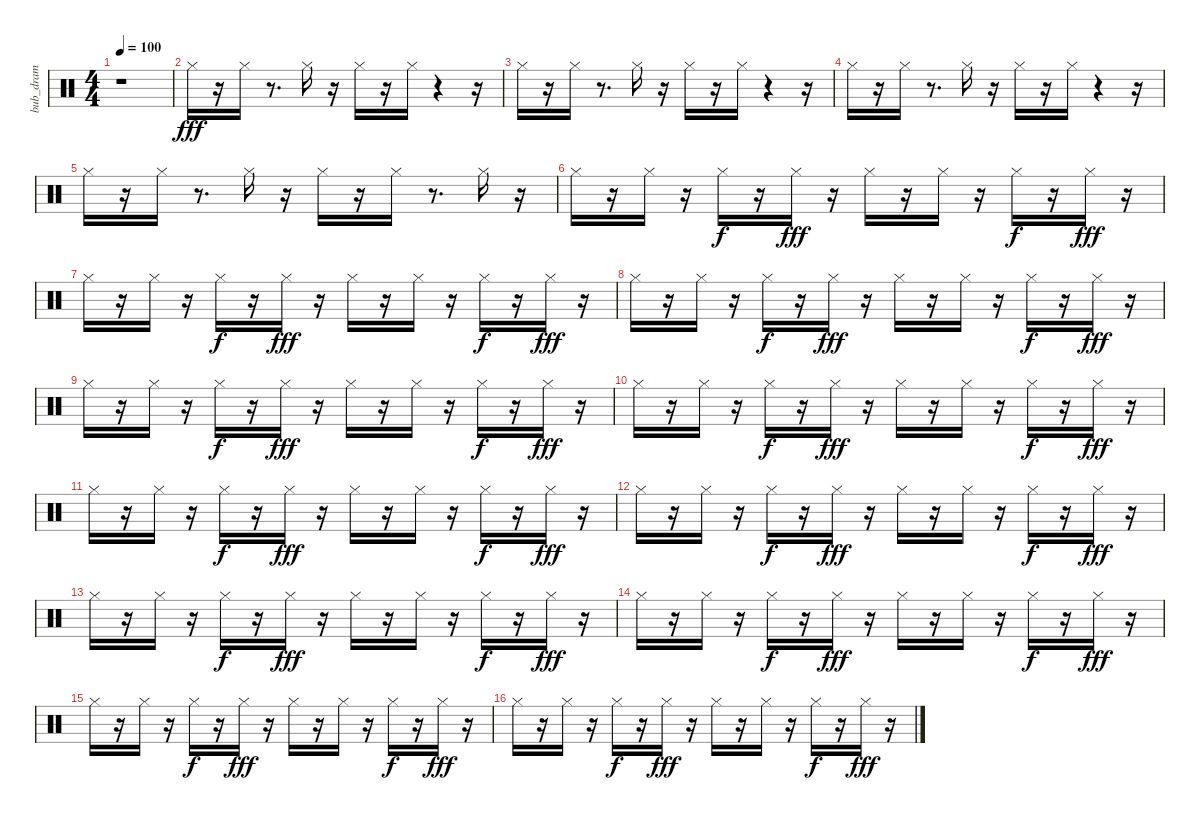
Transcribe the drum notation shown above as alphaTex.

\track ("bub_dram" "bub_dram") {instrument percussion}
\staff {score}
\articulation defaults
\ts (4 4)
\tempo 100
\clef neutral
\ks c
r.1{dy fff} |
"Hi-Hat (closed)".16 r.16 "Hi-Hat (closed)".16 r.8{d} "Hi-Hat (closed)".16 r.16 "Hi-Hat (closed)".16 r.16 "Hi-Hat (closed)".16 r.4 r.16 |
"Hi-Hat (closed)".16 r.16 "Hi-Hat (closed)".16 r.8{d} "Hi-Hat (closed)".16 r.16 "Hi-Hat (closed)".16 r.16 "Hi-Hat (closed)".16 r.4 r.16 |
"Hi-Hat (closed)".16 r.16 "Hi-Hat (closed)".16 r.8{d} "Hi-Hat (closed)".16 r.16 "Hi-Hat (closed)".16 r.16 "Hi-Hat (closed)".16 r.4 r.16 |
"Hi-Hat (closed)".16 r.16 "Hi-Hat (closed)".16 r.8{d} "Hi-Hat (closed)".16 r.16 "Hi-Hat (closed)".16 r.16 "Hi-Hat (closed)".16 r.8{d} "Hi-Hat (closed)".16 r.16 |
"Hi-Hat (closed)".16 r.16 "Hi-Hat (closed)".16 r.16 "Hi-Hat (closed)".16{dy f} r.16 "Hi-Hat (closed)".16{dy fff} r.16 "Hi-Hat (closed)".16 r.16 "Hi-Hat (closed)".16 r.16 "Hi-Hat (closed)".16{dy f} r.16 "Hi-Hat (closed)".16{dy fff} r.16 |
"Hi-Hat (closed)".16 r.16 "Hi-Hat (closed)".16 r.16 "Hi-Hat (closed)".16{dy f} r.16 "Hi-Hat (closed)".16{dy fff} r.16 "Hi-Hat (closed)".16 r.16 "Hi-Hat (closed)".16 r.16 "Hi-Hat (closed)".16{dy f} r.16 "Hi-Hat (closed)".16{dy fff} r.16 |
"Hi-Hat (closed)".16 r.16 "Hi-Hat (closed)".16 r.16 "Hi-Hat (closed)".16{dy f} r.16 "Hi-Hat (closed)".16{dy fff} r.16 "Hi-Hat (closed)".16 r.16 "Hi-Hat (closed)".16 r.16 "Hi-Hat (closed)".16{dy f} r.16 "Hi-Hat (closed)".16{dy fff} r.16 |
"Hi-Hat (closed)".16 r.16 "Hi-Hat (closed)".16 r.16 "Hi-Hat (closed)".16{dy f} r.16 "Hi-Hat (closed)".16{dy fff} r.16 "Hi-Hat (closed)".16 r.16 "Hi-Hat (closed)".16 r.16 "Hi-Hat (closed)".16{dy f} r.16 "Hi-Hat (closed)".16{dy fff} r.16 |
"Hi-Hat (closed)".16 r.16 "Hi-Hat (closed)".16 r.16 "Hi-Hat (closed)".16{dy f} r.16 "Hi-Hat (closed)".16{dy fff} r.16 "Hi-Hat (closed)".16 r.16 "Hi-Hat (closed)".16 r.16 "Hi-Hat (closed)".16{dy f} r.16 "Hi-Hat (closed)".16{dy fff} r.16 |
"Hi-Hat (closed)".16 r.16 "Hi-Hat (closed)".16 r.16 "Hi-Hat (closed)".16{dy f} r.16 "Hi-Hat (closed)".16{dy fff} r.16 "Hi-Hat (closed)".16 r.16 "Hi-Hat (closed)".16 r.16 "Hi-Hat (closed)".16{dy f} r.16 "Hi-Hat (closed)".16{dy fff} r.16 |
"Hi-Hat (closed)".16 r.16 "Hi-Hat (closed)".16 r.16 "Hi-Hat (closed)".16{dy f} r.16 "Hi-Hat (closed)".16{dy fff} r.16 "Hi-Hat (closed)".16 r.16 "Hi-Hat (closed)".16 r.16 "Hi-Hat (closed)".16{dy f} r.16 "Hi-Hat (closed)".16{dy fff} r.16 |
"Hi-Hat (closed)".16 r.16 "Hi-Hat (closed)".16 r.16 "Hi-Hat (closed)".16{dy f} r.16 "Hi-Hat (closed)".16{dy fff} r.16 "Hi-Hat (closed)".16 r.16 "Hi-Hat (closed)".16 r.16 "Hi-Hat (closed)".16{dy f} r.16 "Hi-Hat (closed)".16{dy fff} r.16 |
"Hi-Hat (closed)".16 r.16 "Hi-Hat (closed)".16 r.16 "Hi-Hat (closed)".16{dy f} r.16 "Hi-Hat (closed)".16{dy fff} r.16 "Hi-Hat (closed)".16 r.16 "Hi-Hat (closed)".16 r.16 "Hi-Hat (closed)".16{dy f} r.16 "Hi-Hat (closed)".16{dy fff} r.16 |
"Hi-Hat (closed)".16 r.16 "Hi-Hat (closed)".16 r.16 "Hi-Hat (closed)".16{dy f} r.16 "Hi-Hat (closed)".16{dy fff} r.16 "Hi-Hat (closed)".16 r.16 "Hi-Hat (closed)".16 r.16 "Hi-Hat (closed)".16{dy f} r.16 "Hi-Hat (closed)".16{dy fff} r.16 |
"Hi-Hat (closed)".16 r.16 "Hi-Hat (closed)".16 r.16 "Hi-Hat (closed)".16{dy f} r.16 "Hi-Hat (closed)".16{dy fff} r.16 "Hi-Hat (closed)".16 r.16 "Hi-Hat (closed)".16 r.16 "Hi-Hat (closed)".16{dy f} r.16 "Hi-Hat (closed)".16{dy fff} r.16
